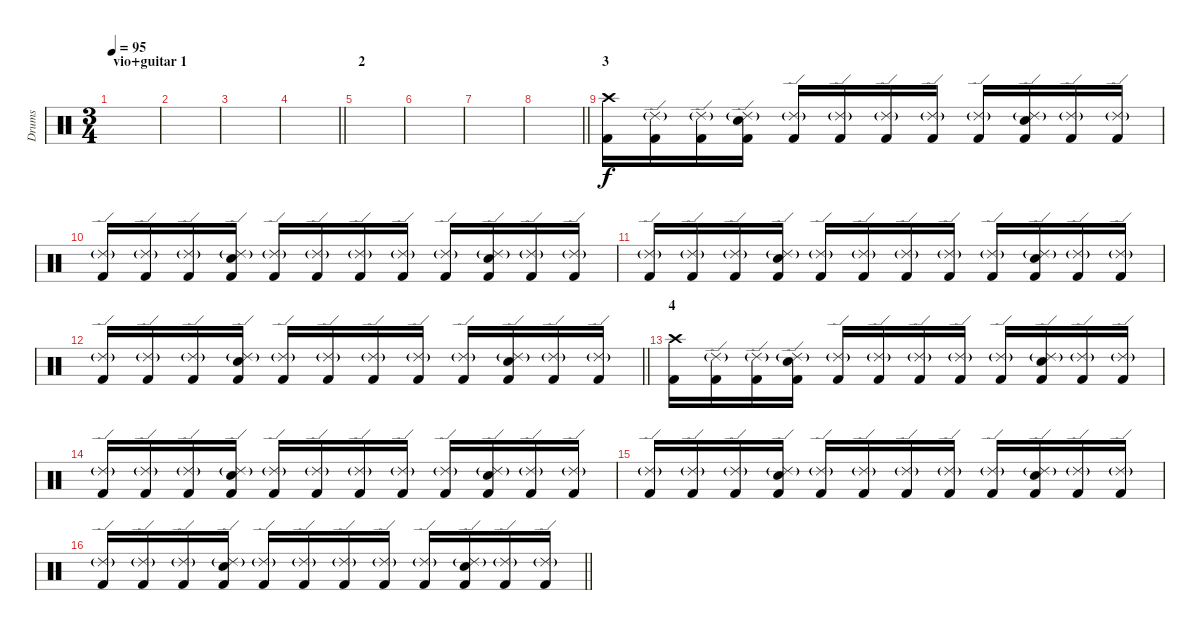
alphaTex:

\track ("Drums" "Drums") {instrument percussion}
\staff {score}
\articulation defaults
\ts (3 4)
\section ("" "vio+guitar 1")
\tempo 95
\clef neutral
\ks c
|
|
|
\barLineRight lightlight
|
\section ("" "2")
|
|
|
\barLineRight lightlight
|
\section ("" "3")
("Crash high (hit)" "Kick (hit) 2").16{volume 1} ("Ride (edge) 2"{g} "Kick (hit) 2").16 ("Ride (edge) 2"{g} "Kick (hit) 2").16 ("Ride (edge) 2"{g} "Electric Snare (hit)" "Kick (hit) 2").16 ("Ride (edge) 2"{g} "Kick (hit) 2").16 ("Ride (edge) 2"{g} "Kick (hit) 2").16 ("Ride (edge) 2"{g} "Kick (hit) 2").16 ("Ride (edge) 2"{g} "Kick (hit) 2").16 ("Ride (edge) 2"{g} "Kick (hit) 2").16 ("Ride (edge) 2"{g} "Electric Snare (hit)" "Kick (hit) 2").16 ("Ride (edge) 2"{g} "Kick (hit) 2").16 ("Ride (edge) 2"{g} "Kick (hit) 2").16 |
("Ride (edge) 2"{g} "Kick (hit) 2").16 ("Ride (edge) 2"{g} "Kick (hit) 2").16 ("Ride (edge) 2"{g} "Kick (hit) 2").16 ("Ride (edge) 2"{g} "Electric Snare (hit)" "Kick (hit) 2").16 ("Ride (edge) 2"{g} "Kick (hit) 2").16 ("Ride (edge) 2"{g} "Kick (hit) 2").16 ("Ride (edge) 2"{g} "Kick (hit) 2").16 ("Ride (edge) 2"{g} "Kick (hit) 2").16 ("Ride (edge) 2"{g} "Kick (hit) 2").16 ("Ride (edge) 2"{g} "Electric Snare (hit)" "Kick (hit) 2").16 ("Ride (edge) 2"{g} "Kick (hit) 2").16 ("Ride (edge) 2"{g} "Kick (hit) 2").16 |
("Ride (edge) 2"{g} "Kick (hit) 2").16{volume 2} ("Ride (edge) 2"{g} "Kick (hit) 2").16 ("Ride (edge) 2"{g} "Kick (hit) 2").16 ("Ride (edge) 2"{g} "Electric Snare (hit)" "Kick (hit) 2").16 ("Ride (edge) 2"{g} "Kick (hit) 2").16 ("Ride (edge) 2"{g} "Kick (hit) 2").16 ("Ride (edge) 2"{g} "Kick (hit) 2").16 ("Ride (edge) 2"{g} "Kick (hit) 2").16 ("Ride (edge) 2"{g} "Kick (hit) 2").16 ("Ride (edge) 2"{g} "Electric Snare (hit)" "Kick (hit) 2").16 ("Ride (edge) 2"{g} "Kick (hit) 2").16 ("Ride (edge) 2"{g} "Kick (hit) 2").16 |
\barLineRight lightlight
("Ride (edge) 2"{g} "Kick (hit) 2").16 ("Ride (edge) 2"{g} "Kick (hit) 2").16 ("Ride (edge) 2"{g} "Kick (hit) 2").16 ("Ride (edge) 2"{g} "Electric Snare (hit)" "Kick (hit) 2").16 ("Ride (edge) 2"{g} "Kick (hit) 2").16 ("Ride (edge) 2"{g} "Kick (hit) 2").16 ("Ride (edge) 2"{g} "Kick (hit) 2").16 ("Ride (edge) 2"{g} "Kick (hit) 2").16 ("Ride (edge) 2"{g} "Kick (hit) 2").16 ("Ride (edge) 2"{g} "Electric Snare (hit)" "Kick (hit) 2").16 ("Ride (edge) 2"{g} "Kick (hit) 2").16 ("Ride (edge) 2"{g} "Kick (hit) 2").16 |
\section ("" "4")
("Crash high (hit)" "Kick (hit) 2").16{volume 3} ("Ride (edge) 2"{g} "Kick (hit) 2").16 ("Ride (edge) 2"{g} "Kick (hit) 2").16 ("Ride (edge) 2"{g} "Electric Snare (hit)" "Kick (hit) 2").16 ("Ride (edge) 2"{g} "Kick (hit) 2").16 ("Ride (edge) 2"{g} "Kick (hit) 2").16 ("Ride (edge) 2"{g} "Kick (hit) 2").16 ("Ride (edge) 2"{g} "Kick (hit) 2").16 ("Ride (edge) 2"{g} "Kick (hit) 2").16 ("Ride (edge) 2"{g} "Electric Snare (hit)" "Kick (hit) 2").16 ("Ride (edge) 2"{g} "Kick (hit) 2").16 ("Ride (edge) 2"{g} "Kick (hit) 2").16 |
("Ride (edge) 2"{g} "Kick (hit) 2").16 ("Ride (edge) 2"{g} "Kick (hit) 2").16 ("Ride (edge) 2"{g} "Kick (hit) 2").16 ("Ride (edge) 2"{g} "Electric Snare (hit)" "Kick (hit) 2").16 ("Ride (edge) 2"{g} "Kick (hit) 2").16 ("Ride (edge) 2"{g} "Kick (hit) 2").16 ("Ride (edge) 2"{g} "Kick (hit) 2").16 ("Ride (edge) 2"{g} "Kick (hit) 2").16 ("Ride (edge) 2"{g} "Kick (hit) 2").16 ("Ride (edge) 2"{g} "Electric Snare (hit)" "Kick (hit) 2").16 ("Ride (edge) 2"{g} "Kick (hit) 2").16 ("Ride (edge) 2"{g} "Kick (hit) 2").16 |
("Ride (edge) 2"{g} "Kick (hit) 2").16{volume 4} ("Ride (edge) 2"{g} "Kick (hit) 2").16 ("Ride (edge) 2"{g} "Kick (hit) 2").16 ("Ride (edge) 2"{g} "Electric Snare (hit)" "Kick (hit) 2").16 ("Ride (edge) 2"{g} "Kick (hit) 2").16 ("Ride (edge) 2"{g} "Kick (hit) 2").16 ("Ride (edge) 2"{g} "Kick (hit) 2").16 ("Ride (edge) 2"{g} "Kick (hit) 2").16 ("Ride (edge) 2"{g} "Kick (hit) 2").16 ("Ride (edge) 2"{g} "Electric Snare (hit)" "Kick (hit) 2").16 ("Ride (edge) 2"{g} "Kick (hit) 2").16 ("Ride (edge) 2"{g} "Kick (hit) 2").16 |
\barLineRight lightlight
("Ride (edge) 2"{g} "Kick (hit) 2").16 ("Ride (edge) 2"{g} "Kick (hit) 2").16 ("Ride (edge) 2"{g} "Kick (hit) 2").16 ("Ride (edge) 2"{g} "Electric Snare (hit)" "Kick (hit) 2").16 ("Ride (edge) 2"{g} "Kick (hit) 2").16 ("Ride (edge) 2"{g} "Kick (hit) 2").16 ("Ride (edge) 2"{g} "Kick (hit) 2").16 ("Ride (edge) 2"{g} "Kick (hit) 2").16 ("Ride (edge) 2"{g} "Kick (hit) 2").16 ("Ride (edge) 2"{g} "Electric Snare (hit)" "Kick (hit) 2").16 ("Ride (edge) 2"{g} "Kick (hit) 2").16 ("Ride (edge) 2"{g} "Kick (hit) 2").16
